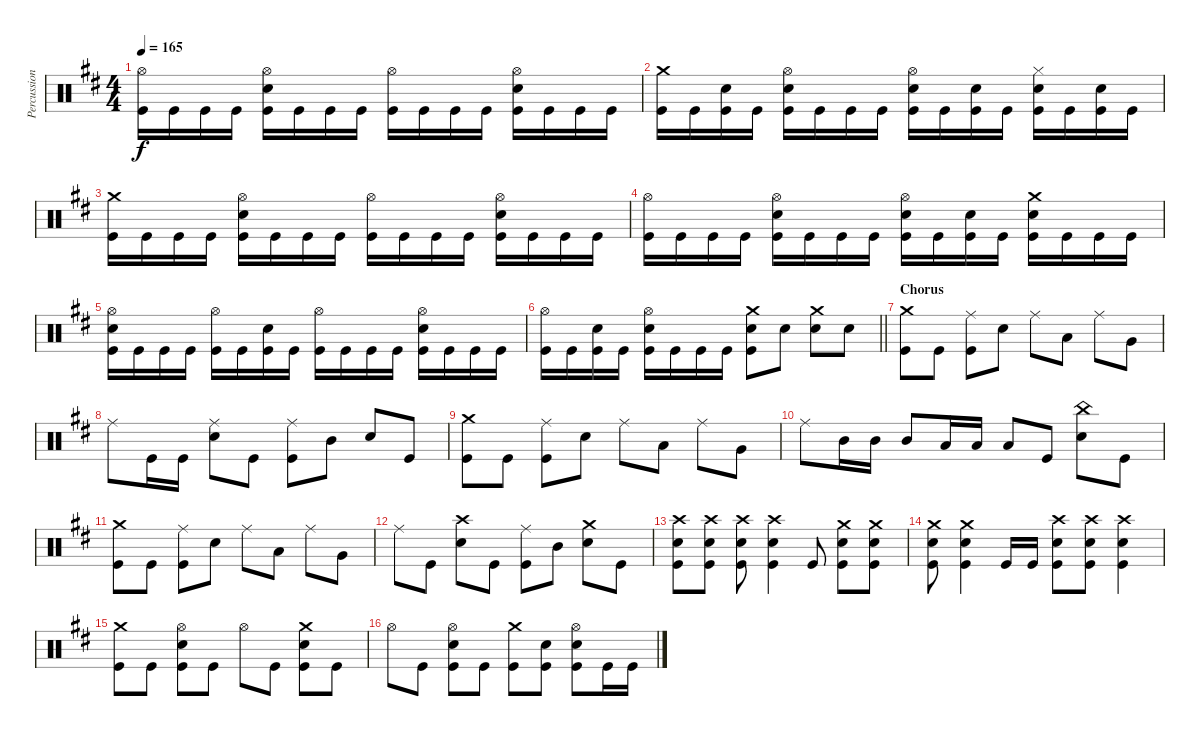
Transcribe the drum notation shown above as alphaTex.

\track ("Percussion" "Percussion") {instrument percussion}
\staff {score}
\articulation defaults
\ts (4 4)
\tempo 165
\clef neutral
\ks d
("Hi-Hat (open)" "Kick (hit)").16{dy f} "Kick (hit)".16 "Kick (hit)".16 "Kick (hit)".16 ("Hi-Hat (open)" "Electric Snare (hit)" "Kick (hit)").16 "Kick (hit)".16 "Kick (hit)".16 "Kick (hit)".16 ("Hi-Hat (open)" "Kick (hit)").16 "Kick (hit)".16 "Kick (hit)".16 "Kick (hit)".16 ("Hi-Hat (open)" "Electric Snare (hit)" "Kick (hit)").16 "Kick (hit)".16 "Kick (hit)".16 "Kick (hit)".16 |
("Crash medium (hit)" "Kick (hit)").16 "Kick (hit)".16 ("Electric Snare (hit)" "Kick (hit)").16 "Kick (hit)".16 ("Hi-Hat (open)" "Electric Snare (hit)" "Kick (hit)").16 "Kick (hit)".16 "Kick (hit)".16 "Kick (hit)".16 ("Hi-Hat (open)" "Electric Snare (hit)" "Kick (hit)").16 "Kick (hit)".16 ("Electric Snare (hit)" "Kick (hit)").16 "Kick (hit)".16 ("Hi-Hat (closed)" "Electric Snare (hit)" "Kick (hit)").16 "Kick (hit)".16 ("Electric Snare (hit)" "Kick (hit)").16 "Kick (hit)".16 |
("Crash medium (hit)" "Kick (hit)").16 "Kick (hit)".16 "Kick (hit)".16 "Kick (hit)".16 ("Hi-Hat (open)" "Electric Snare (hit)" "Kick (hit)").16 "Kick (hit)".16 "Kick (hit)".16 "Kick (hit)".16 ("Hi-Hat (open)" "Kick (hit)").16 "Kick (hit)".16 "Kick (hit)".16 "Kick (hit)".16 ("Hi-Hat (open)" "Electric Snare (hit)" "Kick (hit)").16 "Kick (hit)".16 "Kick (hit)".16 "Kick (hit)".16 |
("Hi-Hat (open)" "Kick (hit)").16 "Kick (hit)".16 "Kick (hit)".16 "Kick (hit)".16 ("Hi-Hat (open)" "Electric Snare (hit)" "Kick (hit)").16 "Kick (hit)".16 "Kick (hit)".16 "Kick (hit)".16 ("Hi-Hat (open)" "Electric Snare (hit)" "Kick (hit)").16 "Kick (hit)".16 ("Electric Snare (hit)" "Kick (hit)").16 "Kick (hit)".16 ("Crash medium (hit)" "Electric Snare (hit)" "Kick (hit)").16 "Kick (hit)".16 "Kick (hit)".16 "Kick (hit)".16 |
("Hi-Hat (open)" "Electric Snare (hit)" "Kick (hit)").16 "Kick (hit)".16 "Kick (hit)".16 "Kick (hit)".16 ("Hi-Hat (open)" "Kick (hit)").16 "Kick (hit)".16 ("Electric Snare (hit)" "Kick (hit)").16 "Kick (hit)".16 ("Hi-Hat (open)" "Kick (hit)").16 "Kick (hit)".16 "Kick (hit)".16 "Kick (hit)".16 ("Hi-Hat (open)" "Electric Snare (hit)" "Kick (hit)").16 "Kick (hit)".16 "Kick (hit)".16 "Kick (hit)".16 |
\barLineRight lightlight
("Hi-Hat (open)" "Kick (hit)").16 "Kick (hit)".16 ("Electric Snare (hit)" "Kick (hit)").16 "Kick (hit)".16 ("Hi-Hat (open)" "Electric Snare (hit)" "Kick (hit)").16 "Kick (hit)".16 "Kick (hit)".16 "Kick (hit)".16 ("Crash medium (hit)" "Electric Snare (hit)" "Kick (hit)").8 "Electric Snare (hit)".8 ("Crash medium (hit)" "Electric Snare (hit)").8 "Electric Snare (hit)".8 |
\section ("" "Chorus")
("Crash medium (hit)" "Kick (hit)").8 "Kick (hit)".8 ("Ride (middle)" "Kick (hit)").8 "Electric Snare (hit)".8 "Ride (middle)".8 "Low Tom (hit)".8 "Ride (middle)".8 "Very Low Tom (hit)".8 |
"Ride (middle)".8 "Kick (hit)".16 "Kick (hit)".16 ("Ride (middle)" "Electric Snare (hit)").8 "Kick (hit)".8 ("Ride (middle)" "Kick (hit)").8 "Mid Tom (hit)".8 "Electric Snare (hit)".8 "Kick (hit)".8 |
("Crash medium (hit)" "Kick (hit)").8 "Kick (hit)".8 ("Ride (middle)" "Kick (hit)").8 "Electric Snare (hit)".8 "Ride (middle)".8 "Low Tom (hit)".8 "Ride (middle)".8 "Very Low Tom (hit)".8 |
"Ride (middle)".8 "Mid Tom (hit)".16 "Mid Tom (hit)".16 "Mid Tom (hit)".8 "Low Tom (hit)".16 "Low Tom (hit)".16 "Low Tom (hit)".8 "Kick (hit)".8 ("China (hit)" "Electric Snare (hit)").8 "Kick (hit)".8 |
("Crash medium (hit)" "Kick (hit)").8 "Kick (hit)".8 ("Ride (middle)" "Kick (hit)").8 "Electric Snare (hit)".8 "Ride (middle)".8 "Low Tom (hit)".8 "Ride (middle)".8 "Very Low Tom (hit)".8 |
"Ride (middle)".8 "Kick (hit)".8 ("Crash high (hit)" "Electric Snare (hit)").8 "Kick (hit)".8 ("Ride (middle)" "Kick (hit)").8 "Mid Tom (hit)".8 ("Crash medium (hit)" "Electric Snare (hit)").8 "Kick (hit)".8 |
("Crash high (hit)" "Electric Snare (hit)" "Kick (hit)").8 ("Crash high (hit)" "Electric Snare (hit)" "Kick (hit)").8 ("Crash high (hit)" "Electric Snare (hit)" "Kick (hit)").8 ("Crash high (hit)" "Electric Snare (hit)" "Kick (hit)").4 "Kick (hit)".8 ("Crash medium (hit)" "Electric Snare (hit)" "Kick (hit)").8 ("Crash medium (hit)" "Electric Snare (hit)" "Kick (hit)").8 |
("Crash medium (hit)" "Electric Snare (hit)" "Kick (hit)").8 ("Crash medium (hit)" "Electric Snare (hit)" "Kick (hit)").4 "Kick (hit)".16 "Kick (hit)".16 ("Crash high (hit)" "Electric Snare (hit)" "Kick (hit)").8 ("Crash high (hit)" "Electric Snare (hit)" "Kick (hit)").8 ("Crash high (hit)" "Electric Snare (hit)" "Kick (hit)").4 |
("Crash medium (hit)" "Kick (hit)").8 "Kick (hit)".8 ("Hi-Hat (open)" "Electric Snare (hit)" "Kick (hit)").8 "Kick (hit)".8 "Hi-Hat (open)".8 "Kick (hit)".8 ("Crash medium (hit)" "Electric Snare (hit)" "Kick (hit)").8 "Kick (hit)".8 |
"Hi-Hat (open)".8 "Kick (hit)".8 ("Hi-Hat (open)" "Electric Snare (hit)" "Kick (hit)").8 "Kick (hit)".8 ("Crash medium (hit)" "Kick (hit)").8 ("Electric Snare (hit)" "Kick (hit)").8 ("Hi-Hat (open)" "Electric Snare (hit)" "Kick (hit)").8 "Kick (hit)".16 "Kick (hit)".16
